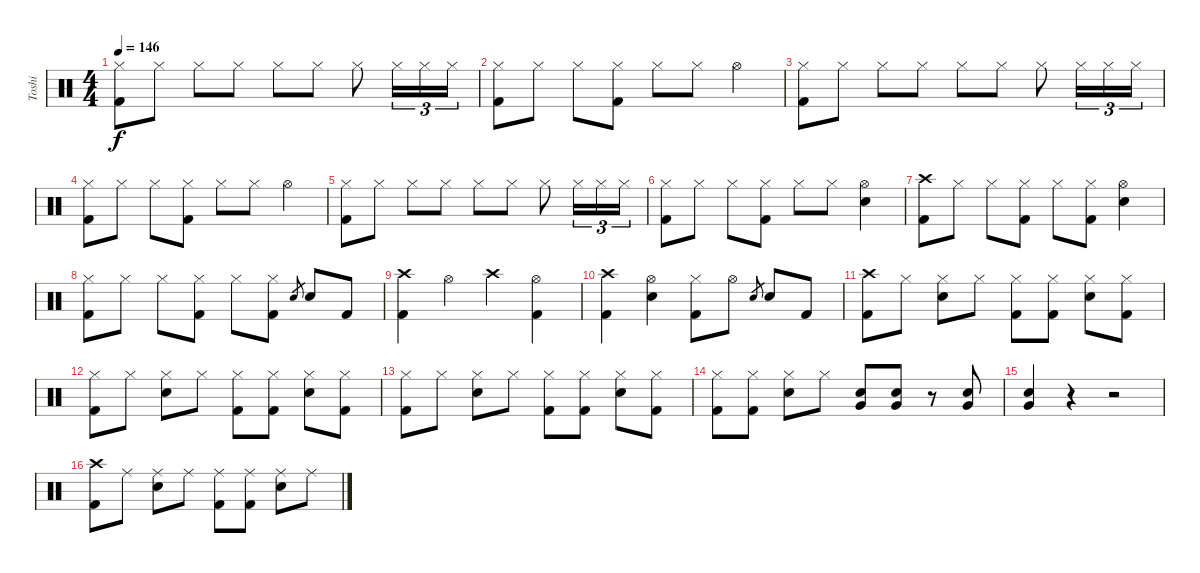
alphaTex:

\track ("Toshi" "Toshi") {instrument percussion}
\staff {score}
\articulation defaults
\ts (4 4)
\tempo 146
\clef neutral
\ks c
("Hi-Hat (closed)" "Kick (hit) 2").8{dy f} "Hi-Hat (closed)".8 "Hi-Hat (closed)".8 "Hi-Hat (closed)".8 "Hi-Hat (closed)".8 "Hi-Hat (closed)".8 "Hi-Hat (closed)".8 "Hi-Hat (closed)".16{tu (3 2)} "Hi-Hat (closed)".16{tu (3 2)} "Hi-Hat (closed)".16{tu (3 2)} |
("Hi-Hat (closed)" "Kick (hit) 2").8 "Hi-Hat (closed)".8 "Hi-Hat (closed)".8 ("Hi-Hat (closed)" "Kick (hit) 2").8 "Hi-Hat (closed)".8 "Hi-Hat (closed)".8 "Hi-Hat (open)".4 |
("Hi-Hat (closed)" "Kick (hit) 2").8 "Hi-Hat (closed)".8 "Hi-Hat (closed)".8 "Hi-Hat (closed)".8 "Hi-Hat (closed)".8 "Hi-Hat (closed)".8 "Hi-Hat (closed)".8 "Hi-Hat (closed)".16{tu (3 2)} "Hi-Hat (closed)".16{tu (3 2)} "Hi-Hat (closed)".16{tu (3 2)} |
("Hi-Hat (closed)" "Kick (hit) 2").8 "Hi-Hat (closed)".8 "Hi-Hat (closed)".8 ("Hi-Hat (closed)" "Kick (hit) 2").8 "Hi-Hat (closed)".8 "Hi-Hat (closed)".8 "Hi-Hat (open)".4 |
("Hi-Hat (closed)" "Kick (hit) 2").8 "Hi-Hat (closed)".8 "Hi-Hat (closed)".8 "Hi-Hat (closed)".8 "Hi-Hat (closed)".8 "Hi-Hat (closed)".8 "Hi-Hat (closed)".8 "Hi-Hat (closed)".16{tu (3 2)} "Hi-Hat (closed)".16{tu (3 2)} "Hi-Hat (closed)".16{tu (3 2)} |
("Hi-Hat (closed)" "Kick (hit) 2").8 "Hi-Hat (closed)".8 "Hi-Hat (closed)".8 ("Hi-Hat (closed)" "Kick (hit) 2").8 "Hi-Hat (closed)".8 "Hi-Hat (closed)".8 ("Hi-Hat (open)" "Electric Snare (hit)").4 |
("Crash high (hit)" "Kick (hit) 2").8 "Hi-Hat (closed)".8 "Hi-Hat (closed)".8 ("Hi-Hat (closed)" "Kick (hit) 2").8 "Hi-Hat (closed)".8 ("Hi-Hat (closed)" "Kick (hit) 2").8 ("Hi-Hat (open)" "Electric Snare (hit)").4 |
("Hi-Hat (closed)" "Kick (hit) 2").8 "Hi-Hat (closed)".8 "Hi-Hat (closed)".8 ("Hi-Hat (closed)" "Kick (hit) 2").8 "Hi-Hat (closed)".8 ("Hi-Hat (closed)" "Kick (hit) 2").8 "Electric Snare (hit)".8{gr} "Electric Snare (hit)".8 "Kick (hit) 2".8 |
("Crash high (hit)" "Kick (hit) 2").4 "Hi-Hat (open)".4 "Crash high (hit)".4 ("Hi-Hat (open)" "Kick (hit) 2").4 |
("Crash high (hit)" "Kick (hit) 2").4 ("Hi-Hat (open)" "Electric Snare (hit)").4 ("Hi-Hat (closed)" "Kick (hit) 2").8 "Hi-Hat (open)".8 "Electric Snare (hit)".8{gr} "Electric Snare (hit)".8 "Kick (hit) 2".8 |
("Crash high (hit)" "Kick (hit) 2").8 "Hi-Hat (closed)".8 ("Hi-Hat (closed)" "Electric Snare (hit)").8 "Hi-Hat (closed)".8 ("Hi-Hat (closed)" "Kick (hit) 2").8 ("Hi-Hat (closed)" "Kick (hit) 2").8 ("Hi-Hat (closed)" "Electric Snare (hit)").8 ("Hi-Hat (closed)" "Kick (hit) 2").8 |
("Hi-Hat (closed)" "Kick (hit) 2").8 "Hi-Hat (closed)".8 ("Hi-Hat (closed)" "Electric Snare (hit)").8 "Hi-Hat (closed)".8 ("Hi-Hat (closed)" "Kick (hit) 2").8 ("Hi-Hat (closed)" "Kick (hit) 2").8 ("Hi-Hat (closed)" "Electric Snare (hit)").8 ("Hi-Hat (closed)" "Kick (hit) 2").8 |
("Hi-Hat (closed)" "Kick (hit) 2").8 "Hi-Hat (closed)".8 ("Hi-Hat (closed)" "Electric Snare (hit)").8 "Hi-Hat (closed)".8 ("Hi-Hat (closed)" "Kick (hit) 2").8 ("Hi-Hat (closed)" "Kick (hit) 2").8 ("Hi-Hat (closed)" "Electric Snare (hit)").8 ("Hi-Hat (closed)" "Kick (hit) 2").8 |
("Hi-Hat (closed)" "Kick (hit) 2").8 ("Hi-Hat (closed)" "Kick (hit) 2").8 ("Hi-Hat (closed)" "Electric Snare (hit)").8 "Hi-Hat (closed)".8 ("Very Low Tom (hit)" "Electric Snare (hit)").8 ("Very Low Tom (hit)" "Electric Snare (hit)").8 r.8 ("Very Low Tom (hit)" "Electric Snare (hit)").8 |
("Very Low Tom (hit)" "Electric Snare (hit)").4 r.4 r.2 |
("Crash high (hit)" "Kick (hit) 2").8 "Ride (middle)".8 ("Ride (middle)" "Electric Snare (hit)").8 "Ride (middle)".8 ("Ride (middle)" "Kick (hit) 2").8 ("Ride (middle)" "Kick (hit) 2").8 ("Ride (middle)" "Electric Snare (hit)").8 "Ride (middle)".8
